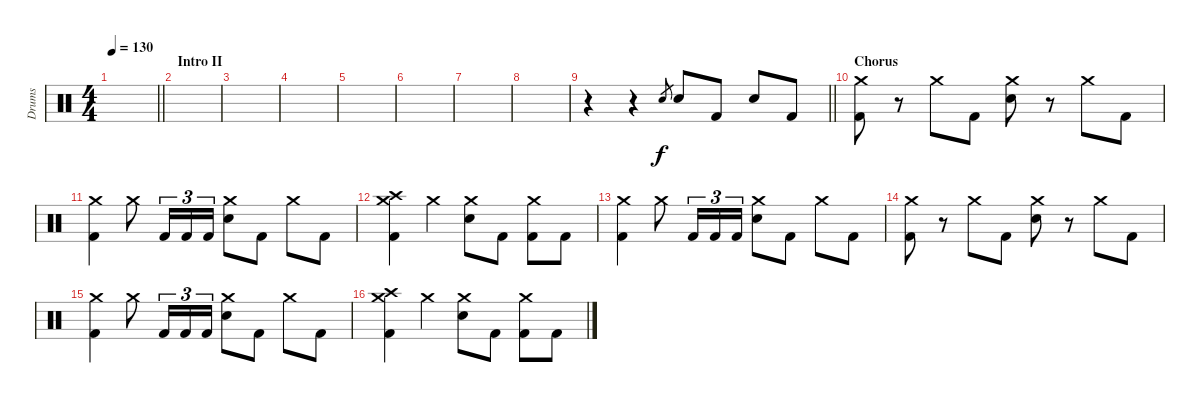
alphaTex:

\track ("Drums" "Drums") {instrument percussion}
\staff {score}
\articulation defaults
\ts (4 4)
\tempo 130
\clef neutral
\barLineRight lightlight
\ks c
|
\section ("" "Intro II")
|
|
|
|
|
|
|
\barLineRight lightlight
r.4 r.4 "Electric Snare (hit)".8{gr} "Electric Snare (hit)".8 "Kick (hit) 2".8 "Electric Snare (hit)".8 "Kick (hit) 2".8 |
\section ("" "Chorus")
("Crash medium (hit)" "Kick (hit) 2").8 r.8 "Crash medium (hit)".8 "Kick (hit) 2".8 ("Crash medium (hit)" "Electric Snare (hit)").8 r.8 "Crash medium (hit)".8 "Kick (hit) 2".8 |
("Crash medium (hit)" "Kick (hit) 2").4 "Crash medium (hit)".8 "Kick (hit) 2".16{tu (3 2)} "Kick (hit) 2".16{tu (3 2)} "Kick (hit) 2".16{tu (3 2)} ("Crash medium (hit)" "Electric Snare (hit)").8 "Kick (hit) 2".8 "Crash medium (hit)".8 "Kick (hit) 2".8 |
("Crash high (hit)" "Crash medium (hit)" "Kick (hit) 2").4 "Crash medium (hit)".4 ("Crash medium (hit)" "Electric Snare (hit)").8 "Kick (hit) 2".8 ("Crash medium (hit)" "Kick (hit) 2").8 "Kick (hit) 2".8 |
("Crash medium (hit)" "Kick (hit) 2").4 "Crash medium (hit)".8 "Kick (hit) 2".16{tu (3 2)} "Kick (hit) 2".16{tu (3 2)} "Kick (hit) 2".16{tu (3 2)} ("Crash medium (hit)" "Electric Snare (hit)").8 "Kick (hit) 2".8 "Crash medium (hit)".8 "Kick (hit) 2".8 |
("Crash medium (hit)" "Kick (hit) 2").8 r.8 "Crash medium (hit)".8 "Kick (hit) 2".8 ("Crash medium (hit)" "Electric Snare (hit)").8 r.8 "Crash medium (hit)".8 "Kick (hit) 2".8 |
("Crash medium (hit)" "Kick (hit) 2").4 "Crash medium (hit)".8 "Kick (hit) 2".16{tu (3 2)} "Kick (hit) 2".16{tu (3 2)} "Kick (hit) 2".16{tu (3 2)} ("Crash medium (hit)" "Electric Snare (hit)").8 "Kick (hit) 2".8 "Crash medium (hit)".8 "Kick (hit) 2".8 |
("Crash high (hit)" "Crash medium (hit)" "Kick (hit) 2").4 "Crash medium (hit)".4 ("Crash medium (hit)" "Electric Snare (hit)").8 "Kick (hit) 2".8 ("Crash medium (hit)" "Kick (hit) 2").8 "Kick (hit) 2".8
